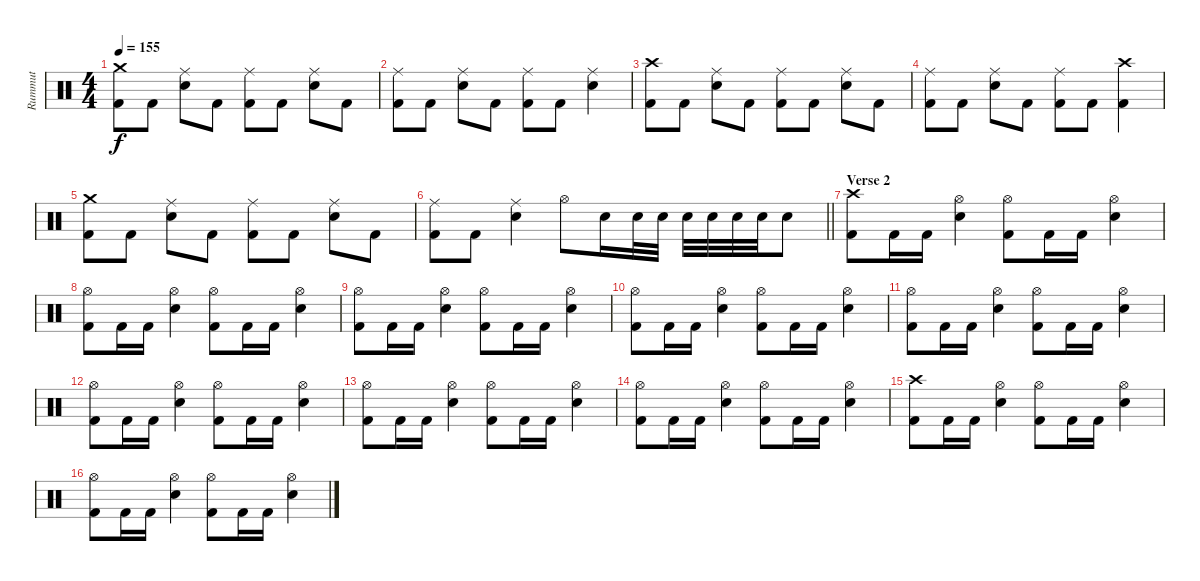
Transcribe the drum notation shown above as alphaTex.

\track ("Rummut" "Rummut") {instrument percussion}
\staff {score}
\articulation defaults
\ts (4 4)
\tempo 155
\clef neutral
\ks c
("Crash medium (hit)" "Kick (hit) 2").8{dy f} "Kick (hit) 2".8 ("Ride (middle)" "Electric Snare (hit)").8 "Kick (hit) 2".8 ("Ride (middle)" "Kick (hit) 2").8 "Kick (hit) 2".8 ("Ride (middle)" "Electric Snare (hit)").8 "Kick (hit) 2".8 |
("Ride (middle)" "Kick (hit) 2").8 "Kick (hit) 2".8 ("Ride (middle)" "Electric Snare (hit)").8 "Kick (hit) 2".8 ("Ride (middle)" "Kick (hit) 2").8 "Kick (hit) 2".8 ("Ride (middle)" "Electric Snare (hit)").4 |
("Crash high (hit)" "Kick (hit) 2").8 "Kick (hit) 2".8 ("Ride (middle)" "Electric Snare (hit)").8 "Kick (hit) 2".8 ("Ride (middle)" "Kick (hit) 2").8 "Kick (hit) 2".8 ("Ride (middle)" "Electric Snare (hit)").8 "Kick (hit) 2".8 |
("Ride (middle)" "Kick (hit) 2").8 "Kick (hit) 2".8 ("Ride (middle)" "Electric Snare (hit)").8 "Kick (hit) 2".8 ("Ride (middle)" "Kick (hit) 2").8 "Kick (hit) 2".8 ("Crash high (hit)" "Kick (hit) 2").4 |
("Crash medium (hit)" "Kick (hit) 2").8 "Kick (hit) 2".8 ("Ride (middle)" "Electric Snare (hit)").8 "Kick (hit) 2".8 ("Ride (middle)" "Kick (hit) 2").8 "Kick (hit) 2".8 ("Ride (middle)" "Electric Snare (hit)").8 "Kick (hit) 2".8 |
\barLineRight lightlight
("Ride (middle)" "Kick (hit) 2").8 "Kick (hit) 2".8 ("Ride (middle)" "Electric Snare (hit)").4 "Hi-Hat (open)".8 "Electric Snare (hit)".16 "Electric Snare (hit)".32 "Electric Snare (hit)".32 "Electric Snare (hit)".32 "Electric Snare (hit)".32 "Electric Snare (hit)".32 "Electric Snare (hit)".32 "Electric Snare (hit)".8 |
\section ("" "Verse 2")
("Crash high (hit)" "Kick (hit) 2").8 "Kick (hit) 2".16 "Kick (hit) 2".16 ("Hi-Hat (open)" "Electric Snare (hit)").4 ("Hi-Hat (open)" "Kick (hit) 2").8 "Kick (hit) 2".16 "Kick (hit) 2".16 ("Hi-Hat (open)" "Electric Snare (hit)").4 |
("Hi-Hat (open)" "Kick (hit) 2").8 "Kick (hit) 2".16 "Kick (hit) 2".16 ("Hi-Hat (open)" "Electric Snare (hit)").4 ("Hi-Hat (open)" "Kick (hit) 2").8 "Kick (hit) 2".16 "Kick (hit) 2".16 ("Hi-Hat (open)" "Electric Snare (hit)").4 |
("Hi-Hat (open)" "Kick (hit) 2").8 "Kick (hit) 2".16 "Kick (hit) 2".16 ("Hi-Hat (open)" "Electric Snare (hit)").4 ("Hi-Hat (open)" "Kick (hit) 2").8 "Kick (hit) 2".16 "Kick (hit) 2".16 ("Hi-Hat (open)" "Electric Snare (hit)").4 |
("Hi-Hat (open)" "Kick (hit) 2").8 "Kick (hit) 2".16 "Kick (hit) 2".16 ("Hi-Hat (open)" "Electric Snare (hit)").4 ("Hi-Hat (open)" "Kick (hit) 2").8 "Kick (hit) 2".16 "Kick (hit) 2".16 ("Hi-Hat (open)" "Electric Snare (hit)").4 |
("Hi-Hat (open)" "Kick (hit) 2").8 "Kick (hit) 2".16 "Kick (hit) 2".16 ("Hi-Hat (open)" "Electric Snare (hit)").4 ("Hi-Hat (open)" "Kick (hit) 2").8 "Kick (hit) 2".16 "Kick (hit) 2".16 ("Hi-Hat (open)" "Electric Snare (hit)").4 |
("Hi-Hat (open)" "Kick (hit) 2").8 "Kick (hit) 2".16 "Kick (hit) 2".16 ("Hi-Hat (open)" "Electric Snare (hit)").4 ("Hi-Hat (open)" "Kick (hit) 2").8 "Kick (hit) 2".16 "Kick (hit) 2".16 ("Hi-Hat (open)" "Electric Snare (hit)").4 |
("Hi-Hat (open)" "Kick (hit) 2").8 "Kick (hit) 2".16 "Kick (hit) 2".16 ("Hi-Hat (open)" "Electric Snare (hit)").4 ("Hi-Hat (open)" "Kick (hit) 2").8 "Kick (hit) 2".16 "Kick (hit) 2".16 ("Hi-Hat (open)" "Electric Snare (hit)").4 |
("Hi-Hat (open)" "Kick (hit) 2").8 "Kick (hit) 2".16 "Kick (hit) 2".16 ("Hi-Hat (open)" "Electric Snare (hit)").4 ("Hi-Hat (open)" "Kick (hit) 2").8 "Kick (hit) 2".16 "Kick (hit) 2".16 ("Hi-Hat (open)" "Electric Snare (hit)").4 |
("Crash high (hit)" "Kick (hit) 2").8 "Kick (hit) 2".16 "Kick (hit) 2".16 ("Hi-Hat (open)" "Electric Snare (hit)").4 ("Hi-Hat (open)" "Kick (hit) 2").8 "Kick (hit) 2".16 "Kick (hit) 2".16 ("Hi-Hat (open)" "Electric Snare (hit)").4 |
("Hi-Hat (open)" "Kick (hit) 2").8 "Kick (hit) 2".16 "Kick (hit) 2".16 ("Hi-Hat (open)" "Electric Snare (hit)").4 ("Hi-Hat (open)" "Kick (hit) 2").8 "Kick (hit) 2".16 "Kick (hit) 2".16 ("Hi-Hat (open)" "Electric Snare (hit)").4
